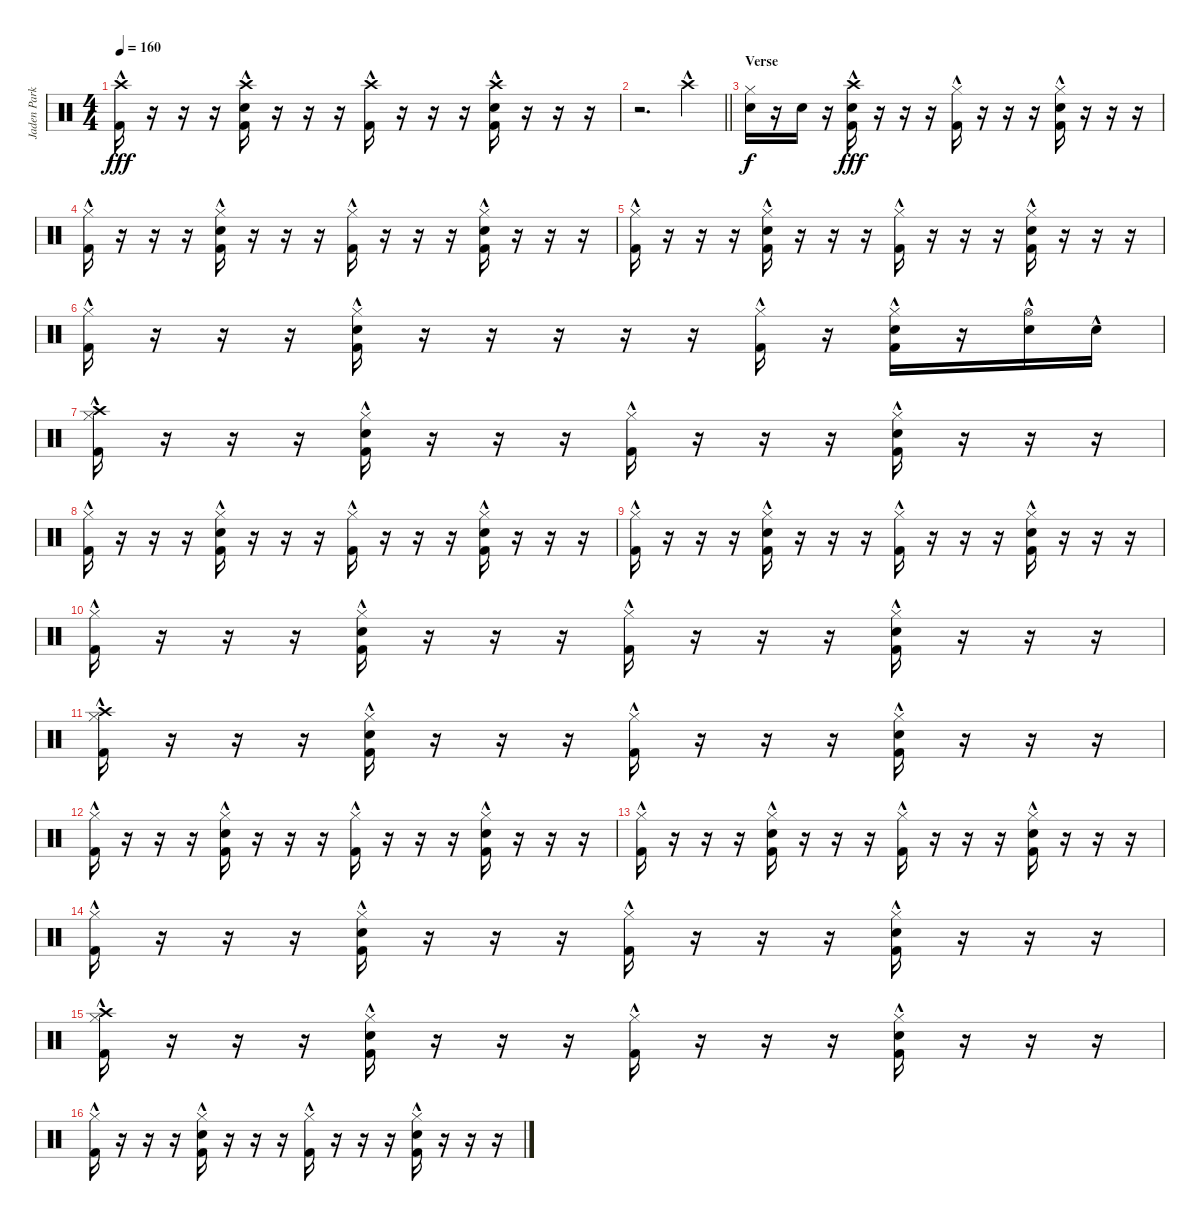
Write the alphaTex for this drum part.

\track ("Jaden Parkes" "Jaden Park") {instrument percussion}
\staff {score}
\articulation defaults
\ts (4 4)
\tempo 160
\clef neutral
\ks c
("Crash high (hit)" "Kick (hit) 2"{hac}).16{dy fff} r.16 r.16 r.16 ("Crash high (hit)"{hac} "Electric Snare (hit)" "Kick (hit) 2"{hac}).16 r.16 r.16 r.16 ("Crash high (hit)" "Kick (hit) 2"{hac}).16 r.16 r.16 r.16 ("Crash high (hit)"{hac} "Electric Snare (hit)" "Kick (hit) 2"{hac}).16 r.16 r.16 r.16 |
\barLineRight lightlight
r.2{d} "Crash high (hit)"{hac}.4 |
\section ("" "Verse")
("Hi-Hat (closed)" "Electric Snare (hit)").16{dy f volume 13} r.16 "Electric Snare (hit)".16 r.16 ("Crash high (hit)"{hac} "Electric Snare (hit)" "Kick (hit) 2"{hac}).16{dy fff} r.16 r.16 r.16 ("Hi-Hat (closed)" "Kick (hit) 2"{hac}).16 r.16 r.16 r.16 ("Hi-Hat (closed)"{hac} "Electric Snare (hit)" "Kick (hit) 2"{hac}).16 r.16 r.16 r.16 |
("Hi-Hat (closed)" "Kick (hit) 2"{hac}).16 r.16 r.16 r.16 ("Hi-Hat (closed)"{hac} "Electric Snare (hit)" "Kick (hit) 2"{hac}).16 r.16 r.16 r.16 ("Hi-Hat (closed)" "Kick (hit) 2"{hac}).16 r.16 r.16 r.16 ("Hi-Hat (closed)"{hac} "Electric Snare (hit)" "Kick (hit) 2"{hac}).16 r.16 r.16 r.16 |
("Hi-Hat (closed)" "Kick (hit) 2"{hac}).16 r.16 r.16 r.16 ("Hi-Hat (closed)"{hac} "Electric Snare (hit)" "Kick (hit) 2"{hac}).16 r.16 r.16 r.16 ("Hi-Hat (closed)" "Kick (hit) 2"{hac}).16 r.16 r.16 r.16 ("Hi-Hat (closed)"{hac} "Electric Snare (hit)" "Kick (hit) 2"{hac}).16 r.16 r.16 r.16 |
("Hi-Hat (closed)" "Kick (hit) 2"{hac}).16 r.16 r.16 r.16 ("Hi-Hat (closed)"{hac} "Electric Snare (hit)" "Kick (hit) 2"{hac}).16 r.16 r.16 r.16 r.16 r.16 ("Hi-Hat (closed)" "Kick (hit) 2"{hac}).16 r.16 ("Hi-Hat (closed)"{hac} "Electric Snare (hit)"{hac} "Kick (hit) 2"{hac}).16 r.16 ("Hi-Hat (open)" "Electric Snare (hit)"{hac}).16 "Electric Snare (hit)"{hac}.16 |
("Hi-Hat (closed)" "Crash high (hit)"{hac} "Kick (hit) 2"{hac}).16 r.16 r.16 r.16 ("Hi-Hat (closed)"{hac} "Electric Snare (hit)" "Kick (hit) 2"{hac}).16 r.16 r.16 r.16 ("Hi-Hat (closed)" "Kick (hit) 2"{hac}).16 r.16 r.16 r.16 ("Hi-Hat (closed)"{hac} "Electric Snare (hit)" "Kick (hit) 2"{hac}).16 r.16 r.16 r.16 |
("Hi-Hat (closed)" "Kick (hit) 2"{hac}).16 r.16 r.16 r.16 ("Hi-Hat (closed)"{hac} "Electric Snare (hit)" "Kick (hit) 2"{hac}).16 r.16 r.16 r.16 ("Hi-Hat (closed)" "Kick (hit) 2"{hac}).16 r.16 r.16 r.16 ("Hi-Hat (closed)"{hac} "Electric Snare (hit)" "Kick (hit) 2"{hac}).16 r.16 r.16 r.16 |
("Hi-Hat (closed)" "Kick (hit) 2"{hac}).16 r.16 r.16 r.16 ("Hi-Hat (closed)"{hac} "Electric Snare (hit)" "Kick (hit) 2"{hac}).16 r.16 r.16 r.16 ("Hi-Hat (closed)" "Kick (hit) 2"{hac}).16 r.16 r.16 r.16 ("Hi-Hat (closed)"{hac} "Electric Snare (hit)" "Kick (hit) 2"{hac}).16 r.16 r.16 r.16 |
("Hi-Hat (closed)" "Kick (hit) 2"{hac}).16 r.16 r.16 r.16 ("Hi-Hat (closed)"{hac} "Electric Snare (hit)" "Kick (hit) 2"{hac}).16 r.16 r.16 r.16 ("Hi-Hat (closed)" "Kick (hit) 2"{hac}).16 r.16 r.16 r.16 ("Hi-Hat (closed)"{hac} "Electric Snare (hit)" "Kick (hit) 2"{hac}).16 r.16 r.16 r.16 |
("Hi-Hat (closed)" "Crash high (hit)"{hac} "Kick (hit) 2"{hac}).16 r.16 r.16 r.16 ("Hi-Hat (closed)"{hac} "Electric Snare (hit)" "Kick (hit) 2"{hac}).16 r.16 r.16 r.16 ("Hi-Hat (closed)" "Kick (hit) 2"{hac}).16 r.16 r.16 r.16 ("Hi-Hat (closed)"{hac} "Electric Snare (hit)" "Kick (hit) 2"{hac}).16 r.16 r.16 r.16 |
("Hi-Hat (closed)" "Kick (hit) 2"{hac}).16 r.16 r.16 r.16 ("Hi-Hat (closed)"{hac} "Electric Snare (hit)" "Kick (hit) 2"{hac}).16 r.16 r.16 r.16 ("Hi-Hat (closed)" "Kick (hit) 2"{hac}).16 r.16 r.16 r.16 ("Hi-Hat (closed)"{hac} "Electric Snare (hit)" "Kick (hit) 2"{hac}).16 r.16 r.16 r.16 |
("Hi-Hat (closed)" "Kick (hit) 2"{hac}).16 r.16 r.16 r.16 ("Hi-Hat (closed)"{hac} "Electric Snare (hit)" "Kick (hit) 2"{hac}).16 r.16 r.16 r.16 ("Hi-Hat (closed)" "Kick (hit) 2"{hac}).16 r.16 r.16 r.16 ("Hi-Hat (closed)"{hac} "Electric Snare (hit)" "Kick (hit) 2"{hac}).16 r.16 r.16 r.16 |
("Hi-Hat (closed)" "Kick (hit) 2"{hac}).16 r.16 r.16 r.16 ("Hi-Hat (closed)"{hac} "Electric Snare (hit)" "Kick (hit) 2"{hac}).16 r.16 r.16 r.16 ("Hi-Hat (closed)" "Kick (hit) 2"{hac}).16 r.16 r.16 r.16 ("Hi-Hat (closed)"{hac} "Electric Snare (hit)" "Kick (hit) 2"{hac}).16 r.16 r.16 r.16 |
("Hi-Hat (closed)" "Crash high (hit)"{hac} "Kick (hit) 2"{hac}).16 r.16 r.16 r.16 ("Hi-Hat (closed)"{hac} "Electric Snare (hit)" "Kick (hit) 2"{hac}).16 r.16 r.16 r.16 ("Hi-Hat (closed)" "Kick (hit) 2"{hac}).16 r.16 r.16 r.16 ("Hi-Hat (closed)"{hac} "Electric Snare (hit)" "Kick (hit) 2"{hac}).16 r.16 r.16 r.16 |
("Hi-Hat (closed)" "Kick (hit) 2"{hac}).16 r.16 r.16 r.16 ("Hi-Hat (closed)"{hac} "Electric Snare (hit)" "Kick (hit) 2"{hac}).16 r.16 r.16 r.16 ("Hi-Hat (closed)" "Kick (hit) 2"{hac}).16 r.16 r.16 r.16 ("Hi-Hat (closed)"{hac} "Electric Snare (hit)" "Kick (hit) 2"{hac}).16 r.16 r.16 r.16
